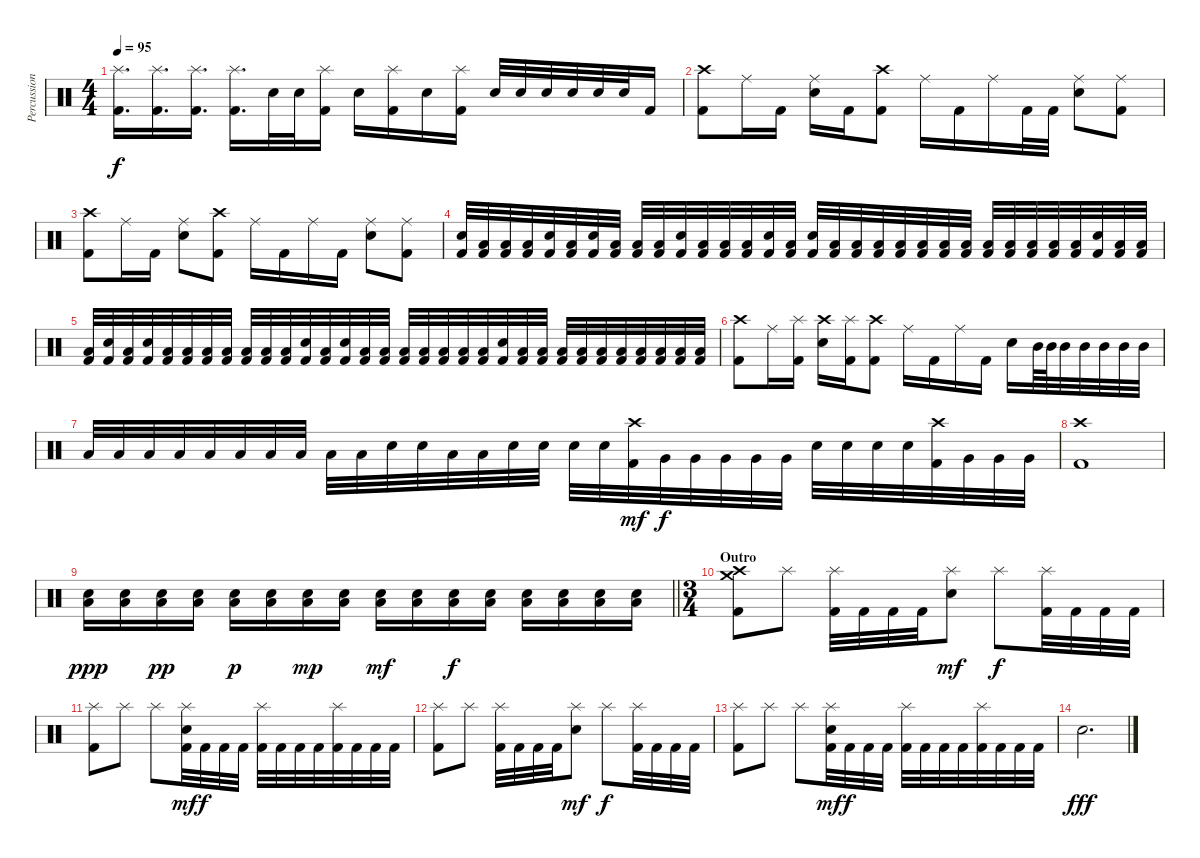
\track ("Percussion Mike" "Percussion") {instrument percussion}
\staff {score}
\articulation defaults
\ts (4 4)
\tempo 95
\clef neutral
\ks c
("Splash (hit)" "Kick (hit) 2").16{d dy f} ("Splash (hit)" "Kick (hit) 2").16{d} ("Splash (hit)" "Kick (hit) 2").16{d} ("Splash (hit)" "Kick (hit) 2").16{d} "Snare (hit) 2".32 "Snare (hit) 2".32 ("Splash (hit)" "Kick (hit) 2").16 "Snare (hit) 2".16 ("Splash (hit)" "Kick (hit) 2").16 "Snare (hit) 2".16 ("Splash (hit)" "Kick (hit) 2").16 "Snare (hit) 2".32 "Snare (hit) 2".32 "Snare (hit) 2".32 "Snare (hit) 2".32 "Snare (hit) 2".32 "Snare (hit) 2".32 "Kick (hit) 2".16 |
("Crash high (hit)" "Kick (hit) 2").8 "Ride (middle)".16 "Kick (hit) 2".16 ("Ride (middle)" "Snare (hit) 2").16 "Kick (hit) 2".16 ("Crash high (hit)" "Kick (hit) 2").8 "Ride (middle)".16 "Kick (hit) 2".16 "Ride (middle)".16 "Kick (hit) 2".32 "Kick (hit) 2".32 ("Ride (middle)" "Snare (hit) 2").8 ("Ride (middle)" "Kick (hit) 2").8 |
("Crash high (hit)" "Kick (hit) 2").8 "Ride (middle)".16 "Kick (hit) 2".16 ("Ride (middle)" "Snare (hit) 2").8 ("Crash high (hit)" "Kick (hit) 2").8 "Ride (middle)".16 "Kick (hit) 2".16 "Ride (middle)".16 "Kick (hit) 2".16 ("Ride (middle)" "Snare (hit) 2").8 ("Ride (middle)" "Kick (hit) 2").8 |
("Snare (hit) 2" "Kick (hit) 2").32 ("Low Tom (hit)" "Kick (hit) 2").32 ("Low Tom (hit)" "Kick (hit) 2").32 ("Low Tom (hit)" "Kick (hit) 2").32 ("Snare (hit) 2" "Kick (hit) 2").32 ("Low Tom (hit)" "Kick (hit) 2").32 ("Snare (hit) 2" "Kick (hit) 2").32 ("Low Tom (hit)" "Kick (hit) 2").32 ("Low Tom (hit)" "Kick (hit) 2").32 ("Low Tom (hit)" "Kick (hit) 2").32 ("Snare (hit) 2" "Kick (hit) 2").32 ("Low Tom (hit)" "Kick (hit) 2").32 ("Low Tom (hit)" "Kick (hit) 2").32 ("Low Tom (hit)" "Kick (hit) 2").32 ("Snare (hit) 2" "Kick (hit) 2").32 ("Low Tom (hit)" "Kick (hit) 2").32 ("Snare (hit) 2" "Kick (hit) 2").32 ("Low Tom (hit)" "Kick (hit) 2").32 ("Low Tom (hit)" "Kick (hit) 2").32 ("Low Tom (hit)" "Kick (hit) 2").32 ("Low Tom (hit)" "Kick (hit) 2").32 ("Low Tom (hit)" "Kick (hit) 2").32 ("Low Tom (hit)" "Kick (hit) 2").32 ("Low Tom (hit)" "Kick (hit) 2").32 ("Low Tom (hit)" "Kick (hit) 2").32 ("Low Tom (hit)" "Kick (hit) 2").32 ("Low Tom (hit)" "Kick (hit) 2").32 ("Low Tom (hit)" "Kick (hit) 2").32 ("Low Tom (hit)" "Kick (hit) 2").32 ("Snare (hit) 2" "Kick (hit) 2").32 ("Low Tom (hit)" "Kick (hit) 2").32 ("Low Tom (hit)" "Kick (hit) 2").32 |
("Low Tom (hit)" "Kick (hit) 2").32 ("Snare (hit) 2" "Kick (hit) 2").32 ("Low Tom (hit)" "Kick (hit) 2").32 ("Snare (hit) 2" "Kick (hit) 2").32 ("Low Tom (hit)" "Kick (hit) 2").32 ("Low Tom (hit)" "Kick (hit) 2").32 ("Low Tom (hit)" "Kick (hit) 2").32 ("Low Tom (hit)" "Kick (hit) 2").32 ("Low Tom (hit)" "Kick (hit) 2").32 ("Low Tom (hit)" "Kick (hit) 2").32 ("Low Tom (hit)" "Kick (hit) 2").32 ("Snare (hit) 2" "Kick (hit) 2").32 ("Low Tom (hit)" "Kick (hit) 2").32 ("Snare (hit) 2" "Kick (hit) 2").32 ("Low Tom (hit)" "Kick (hit) 2").32 ("Low Tom (hit)" "Kick (hit) 2").32 ("Low Tom (hit)" "Kick (hit) 2").32 ("Low Tom (hit)" "Kick (hit) 2").32 ("Low Tom (hit)" "Kick (hit) 2").32 ("Low Tom (hit)" "Kick (hit) 2").32 ("Low Tom (hit)" "Kick (hit) 2").32 ("Snare (hit) 2" "Kick (hit) 2").32 ("Low Tom (hit)" "Kick (hit) 2").32 ("Low Tom (hit)" "Kick (hit) 2").32 ("Low Tom (hit)" "Kick (hit) 2").32 ("Low Tom (hit)" "Kick (hit) 2").32 ("Low Tom (hit)" "Kick (hit) 2").32 ("Low Tom (hit)" "Kick (hit) 2").32 ("Low Tom (hit)" "Kick (hit) 2").32 ("Low Tom (hit)" "Kick (hit) 2").32 ("Low Tom (hit)" "Kick (hit) 2").32 ("Low Tom (hit)" "Kick (hit) 2").32 |
("Crash high (hit)" "Kick (hit) 2").8 "Ride (middle)".16 ("Splash (hit)" "Kick (hit) 2").16 ("Crash high (hit)" "Snare (hit) 2").16 ("Splash (hit)" "Kick (hit) 2").16 ("Crash high (hit)" "Kick (hit) 2").8 "Ride (middle)".16 "Kick (hit) 2".16 "Ride (middle)".16 "Kick (hit) 2".16 "Snare (hit) 2".16 "Mid Tom (hit)".64 "Mid Tom (hit)".64 "Mid Tom (hit)".32 "Mid Tom (hit)".32 "Mid Tom (hit)".32 "Mid Tom (hit)".32 "Mid Tom (hit)".32 |
"Low Tom (hit)".32 "Low Tom (hit)".32 "Low Tom (hit)".32 "Low Tom (hit)".32 "Low Tom (hit)".32 "Low Tom (hit)".32 "Low Tom (hit)".32 "Low Tom (hit)".32 "Low Tom (hit)".32 "Low Tom (hit)".32 "Snare (hit) 2".32 "Snare (hit) 2".32 "Low Tom (hit)".32 "Low Tom (hit)".32 "Snare (hit) 2".32 "Snare (hit) 2".32 "Snare (hit) 2".32 "Snare (hit) 2".32 ("Crash high (hit)" "Kick (hit) 2").32{dy mf} "Very Low Tom (hit)".32{dy f} "Very Low Tom (hit)".32 "Very Low Tom (hit)".32 "Very Low Tom (hit)".32 "Very Low Tom (hit)".32 "Snare (hit) 2".32 "Snare (hit) 2".32 "Snare (hit) 2".32 "Snare (hit) 2".32 ("Crash high (hit)" "Kick (hit) 2").32 "Very Low Tom (hit)".32 "Very Low Tom (hit)".32 "Very Low Tom (hit)".32 |
("Crash high (hit)" "Kick (hit) 2").1 |
\barLineRight lightlight
("Snare (hit) 2" "Low Floor Tom (hit)").16{dy ppp} ("Snare (hit) 2" "Low Floor Tom (hit)").16 ("Snare (hit) 2" "Low Floor Tom (hit)").16{dy pp} ("Snare (hit) 2" "Low Floor Tom (hit)").16 ("Snare (hit) 2" "Low Floor Tom (hit)").16{dy p} ("Snare (hit) 2" "Low Floor Tom (hit)").16 ("Snare (hit) 2" "Low Floor Tom (hit)").16{dy mp} ("Snare (hit) 2" "Low Floor Tom (hit)").16 ("Snare (hit) 2" "Low Floor Tom (hit)").16{dy mf} ("Snare (hit) 2" "Low Floor Tom (hit)").16 ("Snare (hit) 2" "Low Floor Tom (hit)").16{dy f} ("Snare (hit) 2" "Low Floor Tom (hit)").16 ("Snare (hit) 2" "Low Floor Tom (hit)").16 ("Snare (hit) 2" "Low Floor Tom (hit)").16 ("Snare (hit) 2" "Low Floor Tom (hit)").16 ("Snare (hit) 2" "Low Floor Tom (hit)").16 |
\ts (3 4)
\section ("" "Outro")
("Crash medium (hit)" "Crash high (hit)" "Kick (hit) 2").8 "Splash (hit)".8 ("Splash (hit)" "Kick (hit) 2").32 "Kick (hit) 2".32 "Kick (hit) 2".32 "Kick (hit) 2".32 ("Splash (hit)" "Snare (hit) 2").8{dy mf} "Splash (hit)".8{dy f} ("Splash (hit)" "Kick (hit) 2").32 "Kick (hit) 2".32 "Kick (hit) 2".32 "Kick (hit) 2".32 |
("Splash (hit)" "Kick (hit) 2").8 "Splash (hit)".8 "Splash (hit)".8 ("Splash (hit)" "Snare (hit) 2" "Kick (hit) 2").32{dy mf} "Kick (hit) 2".32{dy f} "Kick (hit) 2".32 "Kick (hit) 2".32 ("Splash (hit)" "Kick (hit) 2").32 "Kick (hit) 2".32 "Kick (hit) 2".32 "Kick (hit) 2".32 ("Splash (hit)" "Kick (hit) 2").32 "Kick (hit) 2".32 "Kick (hit) 2".32 "Kick (hit) 2".32 |
("Splash (hit)" "Kick (hit) 2").8 "Splash (hit)".8 ("Splash (hit)" "Kick (hit) 2").32 "Kick (hit) 2".32 "Kick (hit) 2".32 "Kick (hit) 2".32 ("Splash (hit)" "Snare (hit) 2").8{dy mf} "Splash (hit)".8{dy f} ("Splash (hit)" "Kick (hit) 2").32 "Kick (hit) 2".32 "Kick (hit) 2".32 "Kick (hit) 2".32 |
("Splash (hit)" "Kick (hit) 2").8 "Splash (hit)".8 "Splash (hit)".8 ("Splash (hit)" "Snare (hit) 2" "Kick (hit) 2").32{dy mf} "Kick (hit) 2".32{dy f} "Kick (hit) 2".32 "Kick (hit) 2".32 ("Splash (hit)" "Kick (hit) 2").32 "Kick (hit) 2".32 "Kick (hit) 2".32 "Kick (hit) 2".32 ("Splash (hit)" "Kick (hit) 2").32 "Kick (hit) 2".32 "Kick (hit) 2".32 "Kick (hit) 2".32 |
"Snare (hit) 2".2{d dy fff}
